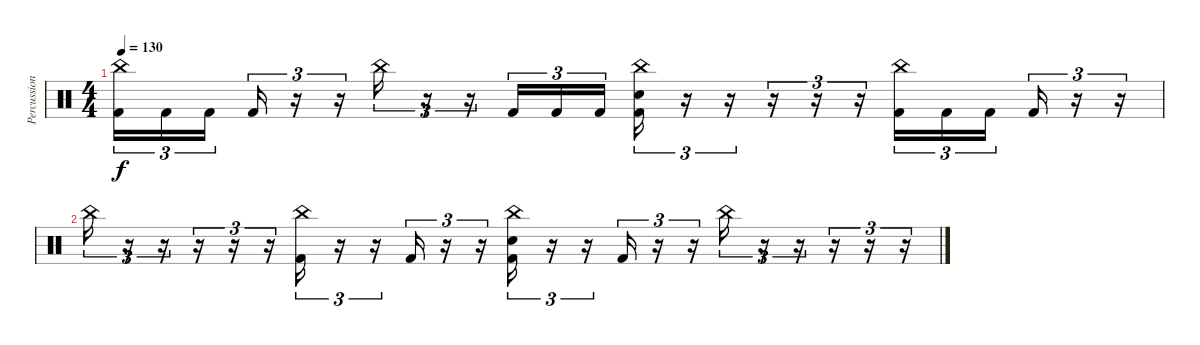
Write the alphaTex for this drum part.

\track ("Percussion" "Percussion") {instrument percussion}
\staff {score}
\articulation defaults
\ts (4 4)
\tempo 130
\clef neutral
\ks c
("China (hit)" "Kick (hit) 2").16{tu (3 2) dy f} "Kick (hit) 2".16{tu (3 2)} "Kick (hit) 2".16{tu (3 2)} "Kick (hit) 2".16{tu (3 2)} r.16{tu (3 2)} r.16{tu (3 2)} "China (hit)".16{tu (3 2)} r.16{tu (3 2)} r.16{tu (3 2)} "Kick (hit) 2".16{tu (3 2)} "Kick (hit) 2".16{tu (3 2)} "Kick (hit) 2".16{tu (3 2)} ("China (hit)" "Electric Snare (hit)" "Kick (hit) 2").16{tu (3 2)} r.16{tu (3 2)} r.16{tu (3 2)} r.16{tu (3 2)} r.16{tu (3 2)} r.16{tu (3 2)} ("China (hit)" "Kick (hit) 2").16{tu (3 2)} "Kick (hit) 2".16{tu (3 2)} "Kick (hit) 2".16{tu (3 2)} "Kick (hit) 2".16{tu (3 2)} r.16{tu (3 2)} r.16{tu (3 2)} |
"China (hit)".16{tu (3 2)} r.16{tu (3 2)} r.16{tu (3 2)} r.16{tu (3 2)} r.16{tu (3 2)} r.16{tu (3 2)} ("China (hit)" "Kick (hit) 2").16{tu (3 2)} r.16{tu (3 2)} r.16{tu (3 2)} "Kick (hit) 2".16{tu (3 2)} r.16{tu (3 2)} r.16{tu (3 2)} ("China (hit)" "Electric Snare (hit)" "Kick (hit) 2").16{tu (3 2)} r.16{tu (3 2)} r.16{tu (3 2)} "Kick (hit) 2".16{tu (3 2)} r.16{tu (3 2)} r.16{tu (3 2)} "China (hit)".16{tu (3 2)} r.16{tu (3 2)} r.16{tu (3 2)} r.16{tu (3 2)} r.16{tu (3 2)} r.16{tu (3 2)}
